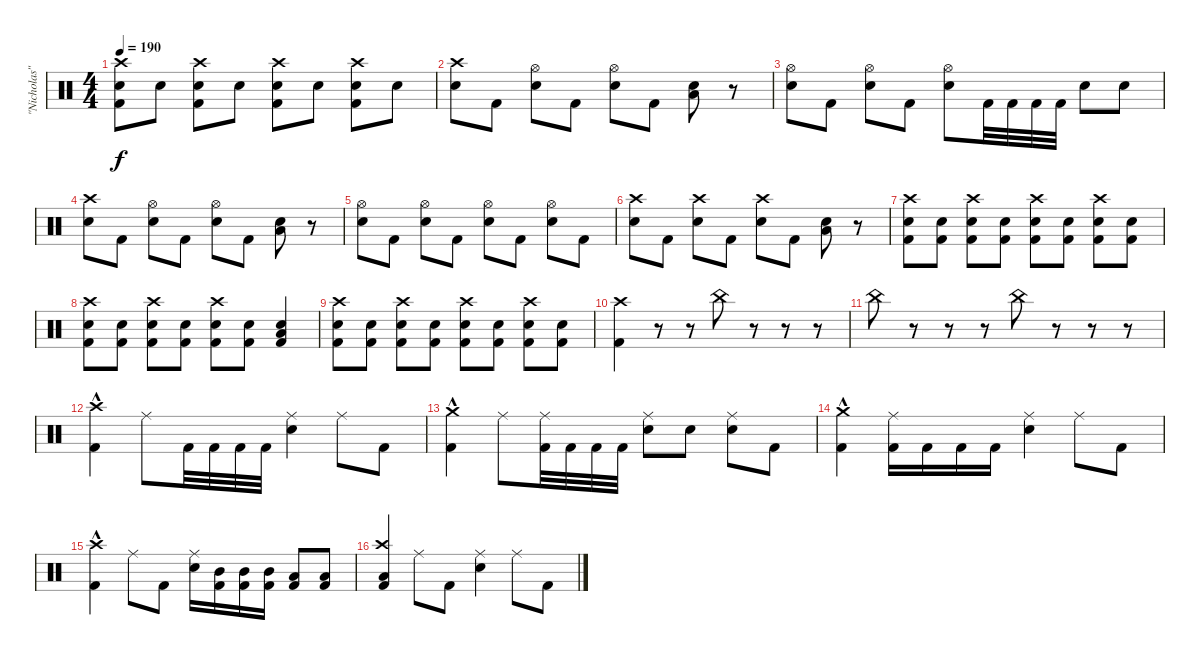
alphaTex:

\track ("\"Nicholas\"" "\"Nicholas\"") {instrument percussion}
\staff {score}
\articulation defaults
\ts (4 4)
\tempo 190
\clef neutral
\ks c
("Kick (hit) 2" "Snare (hit) 2" "Crash high (hit)").8{dy f} "Snare (hit) 2".8 ("Kick (hit) 2" "Snare (hit) 2" "Crash high (hit)").8 "Snare (hit) 2".8 ("Kick (hit) 2" "Snare (hit) 2" "Crash high (hit)").8 "Snare (hit) 2".8 ("Kick (hit) 2" "Snare (hit) 2" "Crash high (hit)").8 "Snare (hit) 2".8 |
("Snare (hit) 2" "Crash high (hit)").8 "Kick (hit) 2".8 ("Snare (hit) 2" "Hi-Hat (open)").8 "Kick (hit) 2".8 ("Snare (hit) 2" "Hi-Hat (open)").8 "Kick (hit) 2".8 ("Snare (hit) 2" "Low Tom (hit)").8 r.8 |
("Snare (hit) 2" "Hi-Hat (open)").8 "Kick (hit) 2".8 ("Snare (hit) 2" "Hi-Hat (open)").8 "Kick (hit) 2".8 ("Snare (hit) 2" "Hi-Hat (open)").8 "Kick (hit) 2".32 "Kick (hit) 2".32 "Kick (hit) 2".32 "Kick (hit) 2".32 "Snare (hit) 2".8 "Snare (hit) 2".8 |
("Snare (hit) 2" "Crash high (hit)").8 "Kick (hit) 2".8 ("Snare (hit) 2" "Hi-Hat (open)").8 "Kick (hit) 2".8 ("Snare (hit) 2" "Hi-Hat (open)").8 "Kick (hit) 2".8 ("Snare (hit) 2" "Low Tom (hit)").8 r.8 |
("Snare (hit) 2" "Hi-Hat (open)").8 "Kick (hit) 2".8 ("Snare (hit) 2" "Hi-Hat (open)").8 "Kick (hit) 2".8 ("Snare (hit) 2" "Hi-Hat (open)").8 "Kick (hit) 2".8 ("Snare (hit) 2" "Hi-Hat (open)").8 "Kick (hit) 2".8 |
("Snare (hit) 2" "Crash high (hit)").8 "Kick (hit) 2".8 ("Snare (hit) 2" "Crash high (hit)").8 "Kick (hit) 2".8 ("Snare (hit) 2" "Crash high (hit)").8 "Kick (hit) 2".8 ("Snare (hit) 2" "Low Tom (hit)").8 r.8 |
("Kick (hit) 2" "Snare (hit) 2" "Crash high (hit)").8 ("Kick (hit) 2" "Snare (hit) 2").8 ("Kick (hit) 2" "Snare (hit) 2" "Crash high (hit)").8 ("Kick (hit) 2" "Snare (hit) 2").8 ("Kick (hit) 2" "Snare (hit) 2" "Crash high (hit)").8 ("Kick (hit) 2" "Snare (hit) 2").8 ("Kick (hit) 2" "Snare (hit) 2" "Crash high (hit)").8 ("Kick (hit) 2" "Snare (hit) 2").8 |
("Kick (hit) 2" "Snare (hit) 2" "Crash high (hit)").8 ("Kick (hit) 2" "Snare (hit) 2").8 ("Kick (hit) 2" "Snare (hit) 2" "Crash high (hit)").8 ("Kick (hit) 2" "Snare (hit) 2").8 ("Kick (hit) 2" "Snare (hit) 2" "Crash high (hit)").8 ("Kick (hit) 2" "Snare (hit) 2").8 ("Kick (hit) 2" "Snare (hit) 2" "Low Tom (hit)").4 |
("Kick (hit) 2" "Snare (hit) 2" "Crash high (hit)").8 ("Kick (hit) 2" "Snare (hit) 2").8 ("Kick (hit) 2" "Snare (hit) 2" "Crash high (hit)").8 ("Kick (hit) 2" "Snare (hit) 2").8 ("Kick (hit) 2" "Snare (hit) 2" "Crash high (hit)").8 ("Kick (hit) 2" "Snare (hit) 2").8 ("Kick (hit) 2" "Snare (hit) 2" "Crash high (hit)").8 ("Kick (hit) 2" "Snare (hit) 2").8 |
("Kick (hit) 2" "Crash high (hit)").4 r.8 r.8 "China (hit)".8 r.8 r.8 r.8 |
"China (hit)".8 r.8 r.8 r.8 "China (hit)".8 r.8 r.8 r.8 |
("Kick (hit) 2"{hac} "Crash high (hit)").4 "Ride (middle)".8 "Kick (hit) 2".32 "Kick (hit) 2".32 "Kick (hit) 2".32 "Kick (hit) 2".32 ("Snare (hit) 2" "Ride (middle)").4 "Ride (middle)".8 "Kick (hit) 2".8 |
("Kick (hit) 2"{hac} "Crash medium (hit)").4 "Ride (middle)".8 ("Kick (hit) 2" "Ride (middle)").32 "Kick (hit) 2".32 "Kick (hit) 2".32 "Kick (hit) 2".32 ("Snare (hit) 2" "Ride (middle)").8 "Snare (hit) 2".8 ("Snare (hit) 2" "Ride (middle)").8 "Kick (hit) 2".8 |
("Kick (hit) 2"{hac} "Crash medium (hit)").4 ("Kick (hit) 2" "Ride (middle)").16 "Kick (hit) 2".16 "Kick (hit) 2".16 "Kick (hit) 2".16 ("Snare (hit) 2" "Ride (middle)").4 "Ride (middle)".8 "Kick (hit) 2".8 |
("Kick (hit) 2"{hac} "Crash high (hit)").4 "Ride (middle)".8 "Kick (hit) 2".8 ("Snare (hit) 2" "Ride (middle)").16 ("Kick (hit) 2" "Mid Tom (hit)").16 ("Kick (hit) 2" "Mid Tom (hit)").16 ("Kick (hit) 2" "Mid Tom (hit)").16 ("Kick (hit) 2" "Low Tom (hit)").8 ("Kick (hit) 2" "Low Tom (hit)").8 |
("Kick (hit) 2" "Low Tom (hit)" "Crash high (hit)").4 "Ride (middle)".8 "Kick (hit) 2".8 ("Snare (hit) 2" "Ride (middle)").4 "Ride (middle)".8 "Kick (hit) 2".8
